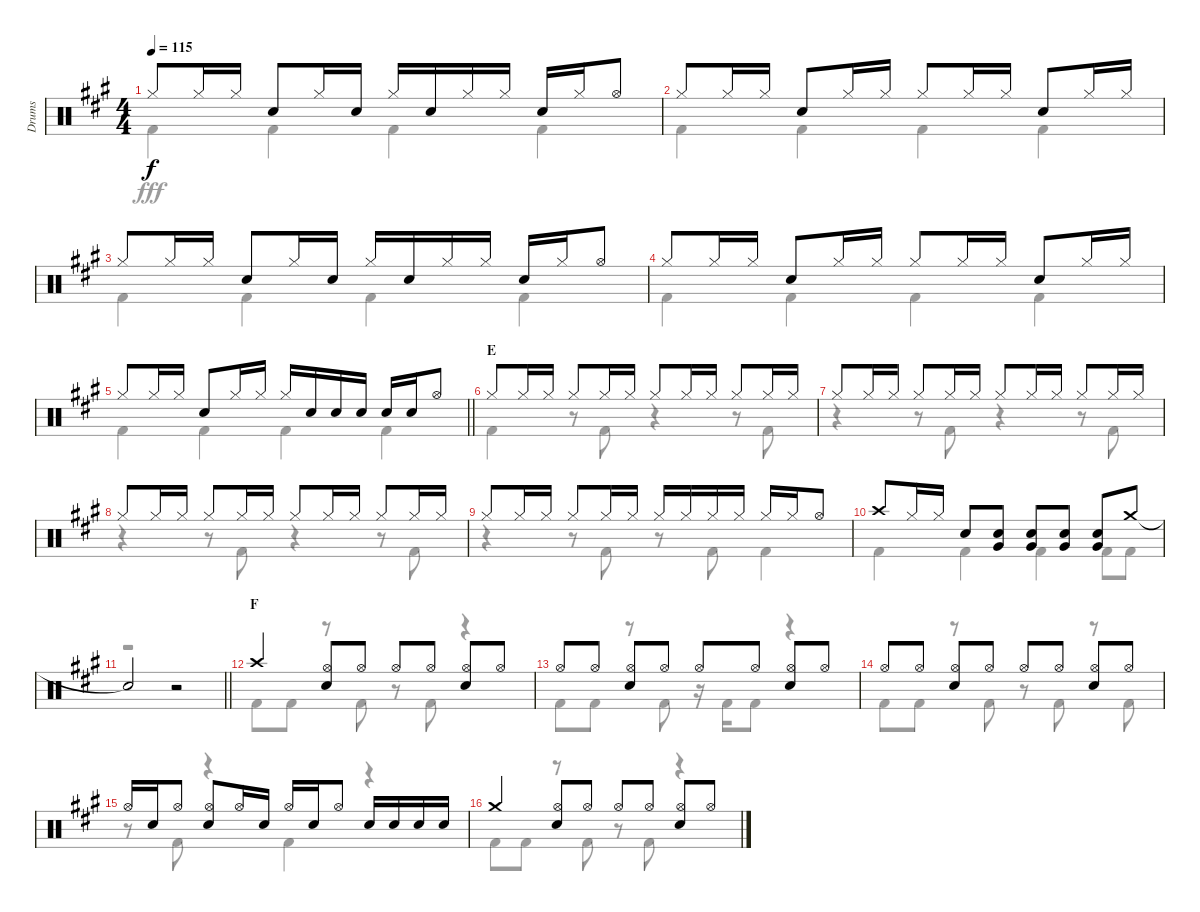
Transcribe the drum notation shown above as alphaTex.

\track ("Drums" "Drums") {instrument percussion}
\staff {score}
\articulation defaults
\voice
\ts (4 4)
\tempo 115
\clef neutral
\ks a "Hi-Hat (closed)".8{dy f} "Hi-Hat (closed)".16 "Hi-Hat (closed)".16 "Snare (hit) 2".8 "Hi-Hat (closed)".16 "Snare (hit) 2".16 "Hi-Hat (closed)".16 "Snare (hit) 2".16 "Hi-Hat (closed)".16 "Hi-Hat (closed)".16 "Snare (hit) 2".16 "Hi-Hat (closed)".16 "Hi-Hat (open)".8
|
"Hi-Hat (closed)".8 "Hi-Hat (closed)".16 "Hi-Hat (closed)".16 "Snare (hit) 2".8 "Hi-Hat (closed)".16 "Hi-Hat (closed)".16 "Hi-Hat (closed)".8 "Hi-Hat (closed)".16 "Hi-Hat (closed)".16 "Snare (hit) 2".8 "Hi-Hat (closed)".16 "Hi-Hat (closed)".16 |
"Hi-Hat (closed)".8 "Hi-Hat (closed)".16 "Hi-Hat (closed)".16 "Snare (hit) 2".8 "Hi-Hat (closed)".16 "Snare (hit) 2".16 "Hi-Hat (closed)".16 "Snare (hit) 2".16 "Hi-Hat (closed)".16 "Hi-Hat (closed)".16 "Snare (hit) 2".16 "Hi-Hat (closed)".16 "Hi-Hat (open)".8 |
"Hi-Hat (closed)".8 "Hi-Hat (closed)".16 "Hi-Hat (closed)".16 "Snare (hit) 2".8 "Hi-Hat (closed)".16 "Hi-Hat (closed)".16 "Hi-Hat (closed)".8 "Hi-Hat (closed)".16 "Hi-Hat (closed)".16 "Snare (hit) 2".8 "Hi-Hat (closed)".16 "Hi-Hat (closed)".16 |
\barLineRight lightlight "Hi-Hat (closed)".8 "Hi-Hat (closed)".16 "Hi-Hat (closed)".16 "Snare (hit) 2".8 "Hi-Hat (closed)".16 "Hi-Hat (closed)".16 "Hi-Hat (closed)".16 "Snare (hit) 2".16 "Snare (hit) 2".16 "Snare (hit) 2".16 "Snare (hit) 2".16 "Snare (hit) 2".16 "Hi-Hat (open)".8
|
\section ("" "E")
"Hi-Hat (closed)".8 "Hi-Hat (closed)".16 "Hi-Hat (closed)".16 "Hi-Hat (closed)".8 "Hi-Hat (closed)".16 "Hi-Hat (closed)".16 "Hi-Hat (closed)".8 "Hi-Hat (closed)".16 "Hi-Hat (closed)".16 "Hi-Hat (closed)".8 "Hi-Hat (closed)".16 "Hi-Hat (closed)".16 |
"Hi-Hat (closed)".8 "Hi-Hat (closed)".16 "Hi-Hat (closed)".16 "Hi-Hat (closed)".8 "Hi-Hat (closed)".16 "Hi-Hat (closed)".16 "Hi-Hat (closed)".8 "Hi-Hat (closed)".16 "Hi-Hat (closed)".16 "Hi-Hat (closed)".8 "Hi-Hat (closed)".16 "Hi-Hat (closed)".16 |
"Hi-Hat (closed)".8 "Hi-Hat (closed)".16 "Hi-Hat (closed)".16 "Hi-Hat (closed)".8 "Hi-Hat (closed)".16 "Hi-Hat (closed)".16 "Hi-Hat (closed)".8 "Hi-Hat (closed)".16 "Hi-Hat (closed)".16 "Hi-Hat (closed)".8 "Hi-Hat (closed)".16 "Hi-Hat (closed)".16 |
"Hi-Hat (closed)".8 "Hi-Hat (closed)".16 "Hi-Hat (closed)".16 "Hi-Hat (closed)".8 "Hi-Hat (closed)".16 "Hi-Hat (closed)".16 "Hi-Hat (closed)".16 "Hi-Hat (closed)".16 "Hi-Hat (closed)".16 "Hi-Hat (closed)".16 "Hi-Hat (closed)".16 "Hi-Hat (closed)".16 "Hi-Hat (open)".8 |
"Crash high (hit)".8 "Hi-Hat (closed)".16 "Hi-Hat (closed)".16 "Snare (hit) 2".8 ("Snare (hit) 2" "Very Low Tom (hit)").8 ("Snare (hit) 2" "Very Low Tom (hit)").8 ("Snare (hit) 2" "Very Low Tom (hit)").8 ("Snare (hit) 2" "Very Low Tom (hit)").8 "Crash medium (hit)".8 |
\barLineRight lightlight "Snare (hit)"{t}.2
r.2 |
\section ("" "F")
"Crash high (hit)".4 ("Hi-Hat (open)" "Snare (hit) 2").8 "Hi-Hat (open)".8 "Hi-Hat (open)".8 "Hi-Hat (open)".8 ("Hi-Hat (open)" "Snare (hit) 2").8 "Hi-Hat (open)".8 |
"Hi-Hat (open)".8 "Hi-Hat (open)".8 ("Hi-Hat (open)" "Snare (hit) 2").8 "Hi-Hat (open)".8 "Hi-Hat (open)".8 "Hi-Hat (open)".8 ("Hi-Hat (open)" "Snare (hit) 2").8 "Hi-Hat (open)".8 |
"Hi-Hat (open)".8 "Hi-Hat (open)".8 ("Hi-Hat (open)" "Snare (hit) 2").8 "Hi-Hat (open)".8 "Hi-Hat (open)".8 "Hi-Hat (open)".8 ("Hi-Hat (open)" "Snare (hit) 2").8 "Hi-Hat (open)".8 |
"Hi-Hat (open)".16 "Snare (hit) 2".16 "Hi-Hat (open)".8 ("Hi-Hat (open)" "Snare (hit) 2").8 "Hi-Hat (open)".16 "Snare (hit) 2".16 "Hi-Hat (open)".16 "Snare (hit) 2".16 "Hi-Hat (open)".8 "Snare (hit) 2".16 "Snare (hit) 2".16 "Snare (hit) 2".16 "Snare (hit) 2".16 |
"Crash medium (hit)".4 ("Hi-Hat (open)" "Snare (hit) 2").8 "Hi-Hat (open)".8 "Hi-Hat (open)".8 "Hi-Hat (open)".8 ("Hi-Hat (open)" "Snare (hit) 2").8 "Hi-Hat (open)".8
\voice
\clef neutral
\ottava regular
\simile none
\ks a "Kick (hit) 2".4{dy fff} "Kick (hit) 2".4 "Kick (hit) 2".4 "Kick (hit) 2".4
|
"Kick (hit) 2".4 "Kick (hit) 2".4 "Kick (hit) 2".4 "Kick (hit) 2".4 |
"Kick (hit) 2".4 "Kick (hit) 2".4 "Kick (hit) 2".4 "Kick (hit) 2".4 |
"Kick (hit) 2".4 "Kick (hit) 2".4 "Kick (hit) 2".4 "Kick (hit) 2".4 |
\barLineRight lightlight "Kick (hit) 2".4 "Kick (hit) 2".4 "Kick (hit) 2".4 "Kick (hit) 2".4
|
"Kick (hit) 2".4 r.8 "Kick (hit) 2".8 r.4 r.8 "Kick (hit) 2".8 |
r.4 r.8 "Kick (hit) 2".8 r.4 r.8 "Kick (hit) 2".8 |
r.4 r.8 "Kick (hit) 2".8 r.4 r.8 "Kick (hit) 2".8 |
r.4 r.8 "Kick (hit) 2".8 r.8 "Kick (hit) 2".8 "Kick (hit) 2".4 |
"Kick (hit) 2".4 "Kick (hit) 2".4 "Kick (hit) 2".4 "Kick (hit) 2".8 "Kick (hit) 2".8 |
\barLineRight lightlight
r.1 |
"Kick (hit) 2".8 "Kick (hit) 2".8 r.8 "Kick (hit) 2".8 r.8 "Kick (hit) 2".8 r.4 |
"Kick (hit) 2".8 "Kick (hit) 2".8 r.8 "Kick (hit) 2".8 r.16 "Kick (hit) 2".16 "Kick (hit) 2".8 r.4 |
"Kick (hit) 2".8 "Kick (hit) 2".8 r.8 "Kick (hit) 2".8 r.8 "Kick (hit) 2".8 r.8 "Kick (hit) 2".8 |
r.8 "Kick (hit) 2".8 r.4 "Kick (hit) 2".4 r.4 |
"Kick (hit) 2".8 "Kick (hit) 2".8 r.8 "Kick (hit) 2".8 r.8 "Kick (hit) 2".8 r.4
